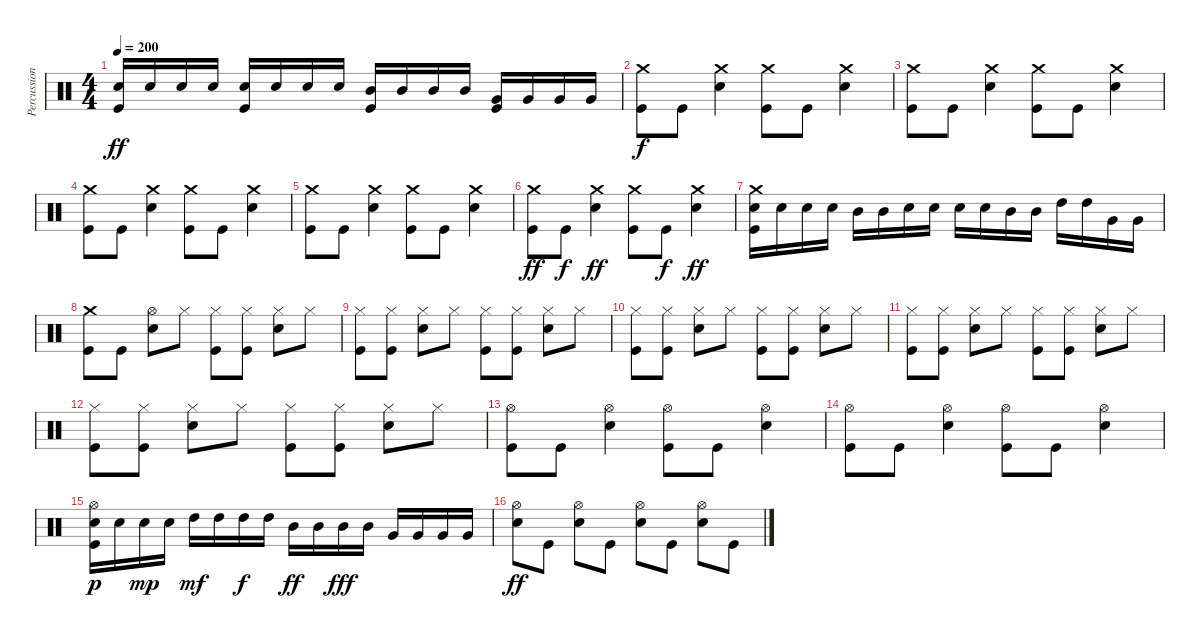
\track ("Percussion" "Percussion") {instrument percussion}
\staff {score}
\articulation defaults
\ts (4 4)
\tempo 200
\clef neutral
\ks c
("Snare (hit) 2" "Kick (hit)").16{dy ff} "Snare (hit) 2".16 "Snare (hit) 2".16 "Snare (hit) 2".16 ("Snare (hit) 2" "Kick (hit)").16 "Snare (hit) 2".16 "Snare (hit) 2".16 "Snare (hit) 2".16 ("Mid Tom (hit)" "Kick (hit)").16 "Mid Tom (hit)".16 "Mid Tom (hit)".16 "Mid Tom (hit)".16 ("Very Low Tom (hit)" "Kick (hit)").16 "Very Low Tom (hit)".16 "Very Low Tom (hit)".16 "Very Low Tom (hit)".16 |
("Crash medium (hit)" "Kick (hit)").8{dy f} "Kick (hit)".8 ("Crash medium (hit)" "Snare (hit) 2").4 ("Crash medium (hit)" "Kick (hit)").8 "Kick (hit)".8 ("Crash medium (hit)" "Snare (hit) 2").4 |
("Crash medium (hit)" "Kick (hit)").8 "Kick (hit)".8 ("Crash medium (hit)" "Snare (hit) 2").4 ("Crash medium (hit)" "Kick (hit)").8 "Kick (hit)".8 ("Crash medium (hit)" "Snare (hit) 2").4 |
("Crash medium (hit)" "Kick (hit)").8 "Kick (hit)".8 ("Crash medium (hit)" "Snare (hit) 2").4 ("Crash medium (hit)" "Kick (hit)").8 "Kick (hit)".8 ("Crash medium (hit)" "Snare (hit) 2").4 |
("Crash medium (hit)" "Kick (hit)").8 "Kick (hit)".8 ("Crash medium (hit)" "Snare (hit) 2").4 ("Crash medium (hit)" "Kick (hit)").8 "Kick (hit)".8 ("Crash medium (hit)" "Snare (hit) 2").4 |
("Crash medium (hit)" "Kick (hit)").8{dy ff} "Kick (hit)".8{dy f} ("Crash medium (hit)" "Snare (hit) 2").4{dy ff} ("Crash medium (hit)" "Kick (hit)").8 "Kick (hit)".8{dy f} ("Crash medium (hit)" "Snare (hit) 2").4{dy ff} |
("Crash medium (hit)" "Snare (hit) 2" "Kick (hit)").16 "Snare (hit) 2".16 "Snare (hit) 2".16 "Snare (hit) 2".16 "Mid Tom (hit)".16 "Mid Tom (hit)".16 "Snare (hit) 2".16 "Snare (hit) 2".16 "Snare (hit) 2".16 "Snare (hit) 2".16 "Mid Tom (hit)".16 "Mid Tom (hit)".16 "High Tom (hit)".16 "High Tom (hit)".16 "Very Low Tom (hit)".16 "Very Low Tom (hit)".16 |
("Crash medium (hit)" "Kick (hit)").8 "Kick (hit)".8 ("Hi-Hat (open)" "Snare (hit) 2").8 "Hi-Hat (closed)".8 ("Hi-Hat (closed)" "Kick (hit)").8 ("Hi-Hat (closed)" "Kick (hit)").8 ("Hi-Hat (closed)" "Snare (hit) 2").8 "Hi-Hat (closed)".8 |
("Hi-Hat (closed)" "Kick (hit)").8 ("Hi-Hat (closed)" "Kick (hit)").8 ("Hi-Hat (closed)" "Snare (hit) 2").8 "Hi-Hat (closed)".8 ("Hi-Hat (closed)" "Kick (hit)").8 ("Hi-Hat (closed)" "Kick (hit)").8 ("Hi-Hat (closed)" "Snare (hit) 2").8 "Hi-Hat (closed)".8 |
("Hi-Hat (closed)" "Kick (hit)").8 ("Hi-Hat (closed)" "Kick (hit)").8 ("Hi-Hat (closed)" "Snare (hit) 2").8 "Hi-Hat (closed)".8 ("Hi-Hat (closed)" "Kick (hit)").8 ("Hi-Hat (closed)" "Kick (hit)").8 ("Hi-Hat (closed)" "Snare (hit) 2").8 "Hi-Hat (closed)".8 |
("Hi-Hat (closed)" "Kick (hit)").8 ("Hi-Hat (closed)" "Kick (hit)").8 ("Hi-Hat (closed)" "Snare (hit) 2").8 "Hi-Hat (closed)".8 ("Hi-Hat (closed)" "Kick (hit)").8 ("Hi-Hat (closed)" "Kick (hit)").8 ("Hi-Hat (closed)" "Snare (hit) 2").8 "Hi-Hat (closed)".8 |
("Hi-Hat (closed)" "Kick (hit)").8 ("Hi-Hat (closed)" "Kick (hit)").8 ("Hi-Hat (closed)" "Snare (hit) 2").8 "Hi-Hat (closed)".8 ("Hi-Hat (closed)" "Kick (hit)").8 ("Hi-Hat (closed)" "Kick (hit)").8 ("Hi-Hat (closed)" "Snare (hit) 2").8 "Hi-Hat (closed)".8 |
("Hi-Hat (open)" "Kick (hit)").8 "Kick (hit)".8 ("Hi-Hat (open)" "Snare (hit) 2").4 ("Hi-Hat (open)" "Kick (hit)").8 "Kick (hit)".8 ("Hi-Hat (open)" "Snare (hit) 2").4 |
("Hi-Hat (open)" "Kick (hit)").8 "Kick (hit)".8 ("Hi-Hat (open)" "Snare (hit) 2").4 ("Hi-Hat (open)" "Kick (hit)").8 "Kick (hit)".8 ("Hi-Hat (open)" "Snare (hit) 2").4 |
("Hi-Hat (open)" "Kick (hit)" "Snare (hit) 2").16{dy p} "Snare (hit) 2".16 "Snare (hit) 2".16{dy mp} "Snare (hit) 2".16 "High Tom (hit)".16{dy mf} "High Tom (hit)".16 "High Tom (hit)".16{dy f} "High Tom (hit)".16 "Mid Tom (hit)".16{dy ff} "Mid Tom (hit)".16 "Mid Tom (hit)".16{dy fff} "Mid Tom (hit)".16 "Very Low Tom (hit)".16 "Very Low Tom (hit)".16 "Very Low Tom (hit)".16 "Very Low Tom (hit)".16 |
("Hi-Hat (open)" "Snare (hit) 2").8{dy ff} "Kick (hit)".8 ("Hi-Hat (open)" "Snare (hit) 2").8 "Kick (hit)".8 ("Hi-Hat (open)" "Snare (hit) 2").8 "Kick (hit)".8 ("Hi-Hat (open)" "Snare (hit) 2").8 "Kick (hit)".8
